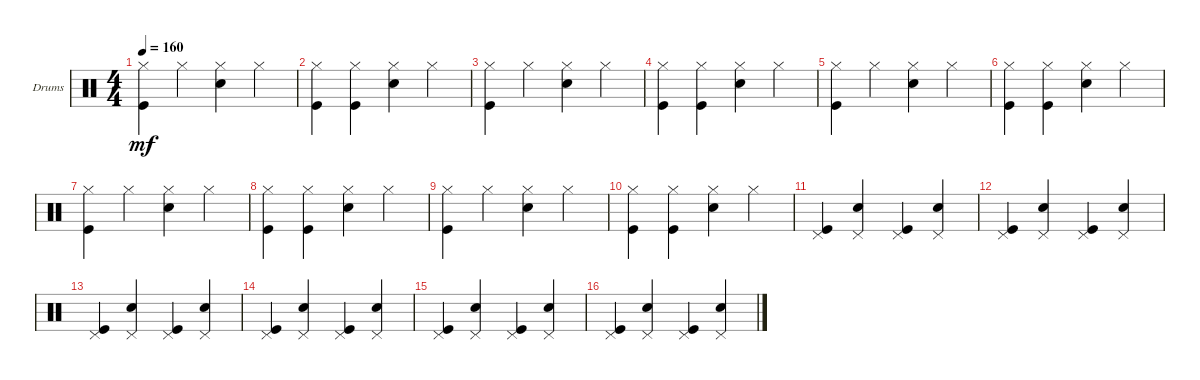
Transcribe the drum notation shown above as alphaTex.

\defaultSystemsLayout 4
\bracketExtendMode groupsimilarinstruments
\firstSystemTrackNameOrientation horizontal
\otherSystemsTrackNameOrientation horizontal
\track ("Drums" "Drums") {instrument percussion}
\staff {score}
\articulation defaults
\ts (4 4)
\tempo 160
\clef neutral
\ks c
("Kick (hit)" "Hi-Hat (closed)").4{dy mf} "Hi-Hat (closed)".4 ("Hi-Hat (closed)" "Snare (hit) 2").4 "Hi-Hat (closed)".4 |
("Kick (hit)" "Hi-Hat (closed)").4 ("Hi-Hat (closed)" "Kick (hit)").4 ("Hi-Hat (closed)" "Snare (hit) 2").4 "Hi-Hat (closed)".4 |
("Kick (hit)" "Hi-Hat (closed)").4 "Hi-Hat (closed)".4 ("Hi-Hat (closed)" "Snare (hit) 2").4 "Hi-Hat (closed)".4 |
("Kick (hit)" "Hi-Hat (closed)").4 ("Hi-Hat (closed)" "Kick (hit)").4 ("Hi-Hat (closed)" "Snare (hit) 2").4 "Hi-Hat (closed)".4 |
("Kick (hit)" "Hi-Hat (closed)").4 "Hi-Hat (closed)".4 ("Hi-Hat (closed)" "Snare (hit) 2").4 "Hi-Hat (closed)".4 |
("Kick (hit)" "Hi-Hat (closed)").4 ("Hi-Hat (closed)" "Kick (hit)").4 ("Hi-Hat (closed)" "Snare (hit) 2").4 "Hi-Hat (closed)".4 |
("Kick (hit)" "Hi-Hat (closed)").4 "Hi-Hat (closed)".4 ("Hi-Hat (closed)" "Snare (hit) 2").4 "Hi-Hat (closed)".4 |
("Kick (hit)" "Hi-Hat (closed)").4 ("Hi-Hat (closed)" "Kick (hit)").4 ("Hi-Hat (closed)" "Snare (hit) 2").4 "Hi-Hat (closed)".4 |
("Kick (hit)" "Hi-Hat (closed)").4 "Hi-Hat (closed)".4 ("Hi-Hat (closed)" "Snare (hit) 2").4 "Hi-Hat (closed)".4 |
("Kick (hit)" "Hi-Hat (closed)").4 ("Hi-Hat (closed)" "Kick (hit)").4 ("Hi-Hat (closed)" "Snare (hit) 2").4 "Hi-Hat (closed)".4 |
("Pedal Hi-Hat (hit)" "Kick (hit)").4 ("Pedal Hi-Hat (hit)" "Snare (hit) 2").4 ("Pedal Hi-Hat (hit)" "Kick (hit)").4 ("Pedal Hi-Hat (hit)" "Snare (hit) 2").4 |
("Pedal Hi-Hat (hit)" "Kick (hit)").4 ("Pedal Hi-Hat (hit)" "Snare (hit) 2").4 ("Pedal Hi-Hat (hit)" "Kick (hit)").4 ("Pedal Hi-Hat (hit)" "Snare (hit) 2").4 |
("Pedal Hi-Hat (hit)" "Kick (hit)").4 ("Pedal Hi-Hat (hit)" "Snare (hit) 2").4 ("Pedal Hi-Hat (hit)" "Kick (hit)").4 ("Pedal Hi-Hat (hit)" "Snare (hit) 2").4 |
("Pedal Hi-Hat (hit)" "Kick (hit)").4 ("Pedal Hi-Hat (hit)" "Snare (hit) 2").4 ("Pedal Hi-Hat (hit)" "Kick (hit)").4 ("Pedal Hi-Hat (hit)" "Snare (hit) 2").4 |
("Pedal Hi-Hat (hit)" "Kick (hit)").4 ("Pedal Hi-Hat (hit)" "Snare (hit) 2").4 ("Pedal Hi-Hat (hit)" "Kick (hit)").4 ("Pedal Hi-Hat (hit)" "Snare (hit) 2").4 |
("Pedal Hi-Hat (hit)" "Kick (hit)").4 ("Pedal Hi-Hat (hit)" "Snare (hit) 2").4 ("Pedal Hi-Hat (hit)" "Kick (hit)").4 ("Pedal Hi-Hat (hit)" "Snare (hit) 2").4
